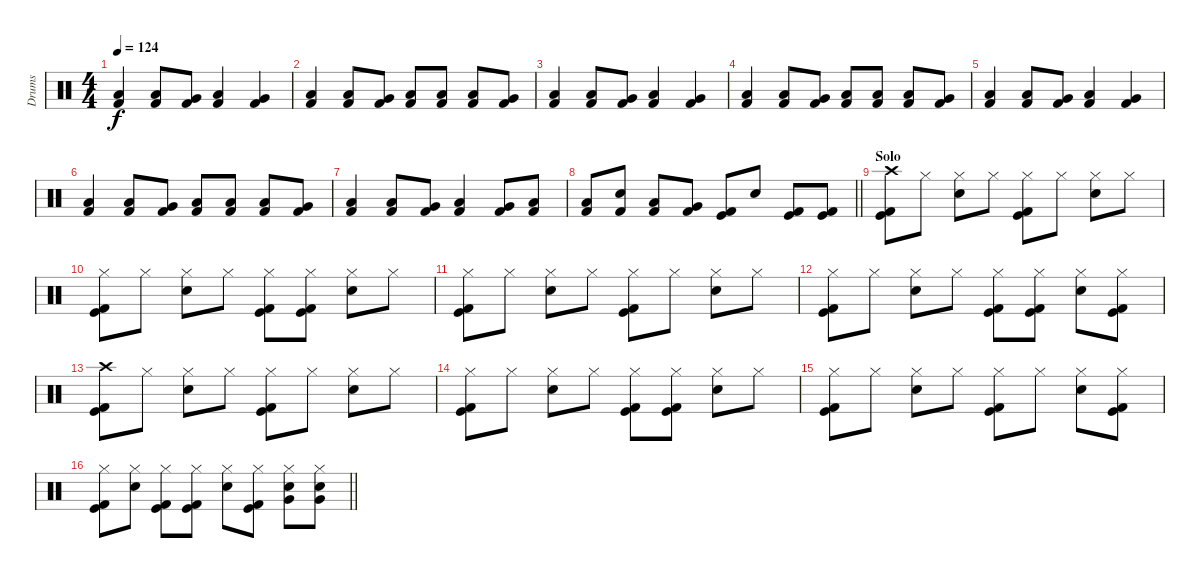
\track ("Drums" "Drums") {instrument percussion}
\staff {score}
\articulation defaults
\ts (4 4)
\section ("" "")
\tempo 124
\clef neutral
\ks c
("Kick (hit) 2" "Low Floor Tom (hit)").4{dy f} ("Kick (hit) 2" "Low Tom (hit)").8 ("Kick (hit) 2" "Very Low Tom (hit)").8 ("Kick (hit) 2" "Low Floor Tom (hit)").4 ("Kick (hit) 2" "Very Low Tom (hit)").4 |
("Kick (hit) 2" "Low Floor Tom (hit)").4 ("Kick (hit) 2" "Low Tom (hit)").8 ("Kick (hit) 2" "Very Low Tom (hit)").8 ("Kick (hit) 2" "Low Floor Tom (hit)").8 ("Kick (hit) 2" "Low Floor Tom (hit)").8 ("Kick (hit) 2" "Low Tom (hit)").8 ("Kick (hit) 2" "Very Low Tom (hit)").8 |
("Kick (hit) 2" "Low Floor Tom (hit)").4 ("Kick (hit) 2" "Low Tom (hit)").8 ("Kick (hit) 2" "Very Low Tom (hit)").8 ("Kick (hit) 2" "Low Floor Tom (hit)").4 ("Kick (hit) 2" "Very Low Tom (hit)").4 |
("Kick (hit) 2" "Low Floor Tom (hit)").4 ("Kick (hit) 2" "Low Tom (hit)").8 ("Kick (hit) 2" "Very Low Tom (hit)").8 ("Kick (hit) 2" "Low Floor Tom (hit)").8 ("Kick (hit) 2" "Low Floor Tom (hit)").8 ("Kick (hit) 2" "Low Tom (hit)").8 ("Kick (hit) 2" "Very Low Tom (hit)").8 |
("Kick (hit) 2" "Low Floor Tom (hit)").4 ("Kick (hit) 2" "Low Tom (hit)").8 ("Kick (hit) 2" "Very Low Tom (hit)").8 ("Kick (hit) 2" "Low Floor Tom (hit)").4 ("Kick (hit) 2" "Very Low Tom (hit)").4 |
("Kick (hit) 2" "Low Floor Tom (hit)").4 ("Kick (hit) 2" "Low Tom (hit)").8 ("Kick (hit) 2" "Very Low Tom (hit)").8 ("Kick (hit) 2" "Low Floor Tom (hit)").8 ("Kick (hit) 2" "Low Floor Tom (hit)").8 ("Kick (hit) 2" "Low Tom (hit)").8 ("Kick (hit) 2" "Very Low Tom (hit)").8 |
("Kick (hit) 2" "Low Floor Tom (hit)").4 ("Kick (hit) 2" "Low Tom (hit)").8 ("Kick (hit) 2" "Very Low Tom (hit)").8 ("Kick (hit) 2" "Low Floor Tom (hit)").4 ("Kick (hit) 2" "Very Low Tom (hit)").8 ("Kick (hit) 2" "Low Floor Tom (hit)").8 |
\barLineRight lightlight
("Kick (hit) 2" "Low Floor Tom (hit)").8 ("Kick (hit) 2" "Snare (hit)").8 ("Kick (hit) 2" "Low Floor Tom (hit)").8 ("Kick (hit) 2" "Very Low Tom (hit)").8 ("Kick (hit)" "Kick (hit) 2").8 "Electric Snare (hit)".8 ("Kick (hit)" "Kick (hit) 2").8 ("Kick (hit)" "Kick (hit) 2").8 |
\section ("" "Solo")
("Crash high (hit)" "Kick (hit)" "Kick (hit) 2").8 "Hi-Hat (closed)".8 ("Hi-Hat (closed)" "Electric Snare (hit)").8 "Hi-Hat (closed)".8 ("Hi-Hat (closed)" "Kick (hit)" "Kick (hit) 2").8 "Hi-Hat (closed)".8 ("Hi-Hat (closed)" "Electric Snare (hit)").8 "Hi-Hat (closed)".8 |
("Hi-Hat (closed)" "Kick (hit)" "Kick (hit) 2").8 "Hi-Hat (closed)".8 ("Hi-Hat (closed)" "Electric Snare (hit)").8 "Hi-Hat (closed)".8 ("Hi-Hat (closed)" "Kick (hit)" "Kick (hit) 2").8 ("Hi-Hat (closed)" "Kick (hit)" "Kick (hit) 2").8 ("Hi-Hat (closed)" "Electric Snare (hit)").8 "Hi-Hat (closed)".8 |
("Hi-Hat (closed)" "Kick (hit)" "Kick (hit) 2").8 "Hi-Hat (closed)".8 ("Hi-Hat (closed)" "Electric Snare (hit)").8 "Hi-Hat (closed)".8 ("Hi-Hat (closed)" "Kick (hit)" "Kick (hit) 2").8 "Hi-Hat (closed)".8 ("Hi-Hat (closed)" "Electric Snare (hit)").8 "Hi-Hat (closed)".8 |
("Hi-Hat (closed)" "Kick (hit)" "Kick (hit) 2").8 "Hi-Hat (closed)".8 ("Hi-Hat (closed)" "Electric Snare (hit)").8 "Hi-Hat (closed)".8 ("Hi-Hat (closed)" "Kick (hit)" "Kick (hit) 2").8 ("Hi-Hat (closed)" "Kick (hit)" "Kick (hit) 2").8 ("Hi-Hat (closed)" "Electric Snare (hit)").8 ("Hi-Hat (closed)" "Kick (hit)" "Kick (hit) 2").8 |
("Crash high (hit)" "Kick (hit)" "Kick (hit) 2").8 "Hi-Hat (closed)".8 ("Hi-Hat (closed)" "Electric Snare (hit)").8 "Hi-Hat (closed)".8 ("Hi-Hat (closed)" "Kick (hit)" "Kick (hit) 2").8 "Hi-Hat (closed)".8 ("Hi-Hat (closed)" "Electric Snare (hit)").8 "Hi-Hat (closed)".8 |
("Hi-Hat (closed)" "Kick (hit)" "Kick (hit) 2").8 "Hi-Hat (closed)".8 ("Hi-Hat (closed)" "Electric Snare (hit)").8 "Hi-Hat (closed)".8 ("Hi-Hat (closed)" "Kick (hit)" "Kick (hit) 2").8 ("Hi-Hat (closed)" "Kick (hit)" "Kick (hit) 2").8 ("Hi-Hat (closed)" "Electric Snare (hit)").8 "Hi-Hat (closed)".8 |
("Hi-Hat (closed)" "Kick (hit)" "Kick (hit) 2").8 "Hi-Hat (closed)".8 ("Hi-Hat (closed)" "Electric Snare (hit)").8 "Hi-Hat (closed)".8 ("Hi-Hat (closed)" "Kick (hit)" "Kick (hit) 2").8 "Hi-Hat (closed)".8 ("Hi-Hat (closed)" "Electric Snare (hit)").8 ("Hi-Hat (closed)" "Kick (hit)" "Kick (hit) 2").8 |
\barLineRight lightlight
("Hi-Hat (closed)" "Kick (hit)" "Kick (hit) 2").8 ("Hi-Hat (closed)" "Electric Snare (hit)").8 ("Hi-Hat (closed)" "Kick (hit)" "Kick (hit) 2").8 ("Hi-Hat (closed)" "Kick (hit)" "Kick (hit) 2").8 ("Hi-Hat (closed)" "Electric Snare (hit)").8 ("Hi-Hat (closed)" "Kick (hit)" "Kick (hit) 2").8 ("Hi-Hat (closed)" "Electric Snare (hit)" "Very Low Tom (hit)").8 ("Hi-Hat (closed)" "Electric Snare (hit)" "Very Low Tom (hit)").8
